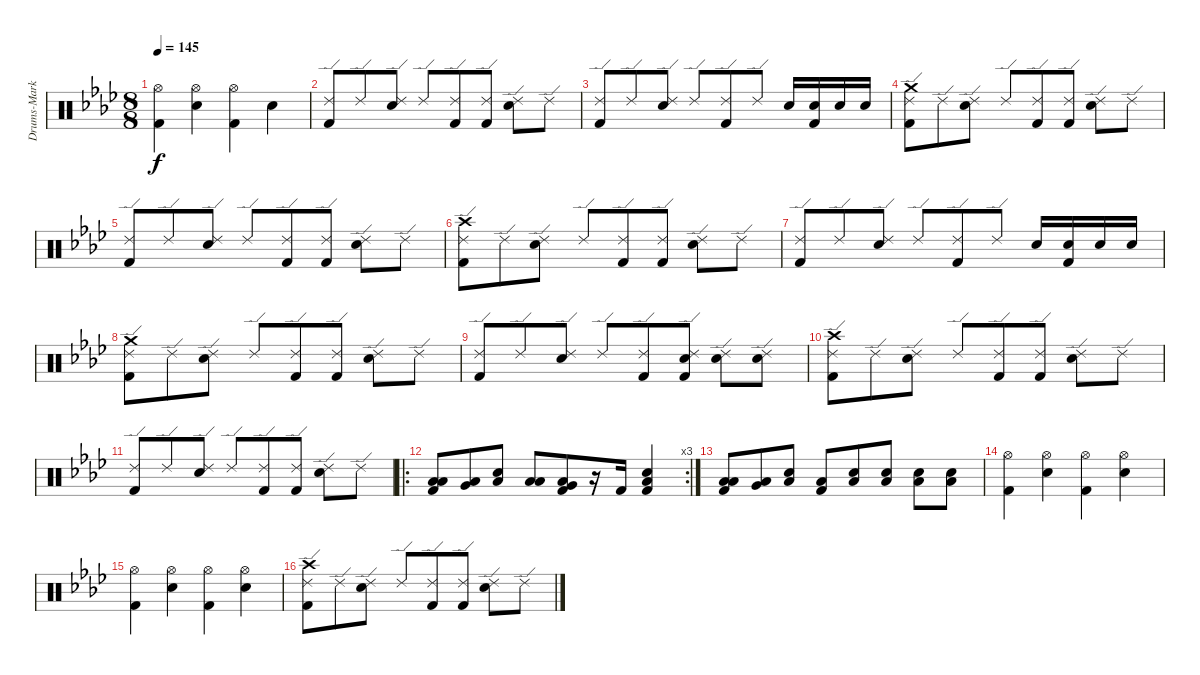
\track ("Drums-Marky" "Drums-Mark") {instrument percussion}
\staff {score}
\articulation defaults
\ts (8 8)
\tempo 145
\clef neutral
\ks ab
("Hi-Hat (open)" "Kick (hit) 2").4{dy f} ("Hi-Hat (open)" "Snare (hit) 2").4 ("Hi-Hat (open)" "Kick (hit) 2").4 "Snare (hit) 2".4 |
("Ride (edge) 2" "Kick (hit) 2").8 "Ride (edge) 2".8 ("Ride (edge) 2" "Snare (hit) 2").8 "Ride (edge) 2".8 ("Ride (edge) 2" "Kick (hit) 2").8 ("Ride (edge) 2" "Kick (hit) 2").8 ("Ride (edge) 2" "Snare (hit) 2").8 "Ride (edge) 2".8 |
("Ride (edge) 2" "Kick (hit) 2").8 "Ride (edge) 2".8 ("Ride (edge) 2" "Snare (hit) 2").8 "Ride (edge) 2".8 ("Ride (edge) 2" "Kick (hit) 2").8 "Ride (edge) 2".8 "Snare (hit) 2".16 ("Kick (hit) 2" "Snare (hit) 2").16 "Snare (hit) 2".16 "Snare (hit) 2".16 |
("Ride (edge) 2" "Kick (hit) 2" "Crash medium (hit)").8 "Ride (edge) 2".8 ("Ride (edge) 2" "Snare (hit) 2").8 "Ride (edge) 2".8 ("Ride (edge) 2" "Kick (hit) 2").8 ("Ride (edge) 2" "Kick (hit) 2").8 ("Ride (edge) 2" "Snare (hit) 2").8 "Ride (edge) 2".8 |
("Ride (edge) 2" "Kick (hit) 2").8 "Ride (edge) 2".8 ("Ride (edge) 2" "Snare (hit) 2").8 "Ride (edge) 2".8 ("Ride (edge) 2" "Kick (hit) 2").8 ("Ride (edge) 2" "Kick (hit) 2").8 ("Ride (edge) 2" "Snare (hit) 2").8 "Ride (edge) 2".8 |
("Ride (edge) 2" "Kick (hit) 2" "Crash high (hit)").8 "Ride (edge) 2".8 ("Ride (edge) 2" "Snare (hit) 2").8 "Ride (edge) 2".8 ("Ride (edge) 2" "Kick (hit) 2").8 ("Ride (edge) 2" "Kick (hit) 2").8 ("Ride (edge) 2" "Snare (hit) 2").8 "Ride (edge) 2".8 |
("Ride (edge) 2" "Kick (hit) 2").8 "Ride (edge) 2".8 ("Ride (edge) 2" "Snare (hit) 2").8 "Ride (edge) 2".8 ("Ride (edge) 2" "Kick (hit) 2").8 "Ride (edge) 2".8 "Snare (hit) 2".16 ("Snare (hit) 2" "Kick (hit) 2").16 "Snare (hit) 2".16 "Snare (hit) 2".16 |
("Ride (edge) 2" "Kick (hit) 2" "Crash medium (hit)").8 "Ride (edge) 2".8 ("Ride (edge) 2" "Snare (hit) 2").8 "Ride (edge) 2".8 ("Ride (edge) 2" "Kick (hit) 2").8 ("Ride (edge) 2" "Kick (hit) 2").8 ("Ride (edge) 2" "Snare (hit) 2").8 "Ride (edge) 2".8 |
("Ride (edge) 2" "Kick (hit) 2").8 "Ride (edge) 2".8 ("Ride (edge) 2" "Snare (hit) 2").8 "Ride (edge) 2".8 ("Ride (edge) 2" "Kick (hit) 2").8 ("Ride (edge) 2" "Snare (hit) 2" "Kick (hit) 2").8 ("Ride (edge) 2" "Snare (hit) 2").8 ("Ride (edge) 2" "Snare (hit) 2").8 |
("Ride (edge) 2" "Kick (hit) 2" "Crash high (hit)").8 "Ride (edge) 2".8 ("Ride (edge) 2" "Snare (hit) 2").8 "Ride (edge) 2".8 ("Ride (edge) 2" "Kick (hit) 2").8 ("Ride (edge) 2" "Kick (hit) 2").8 ("Ride (edge) 2" "Snare (hit) 2").8 "Ride (edge) 2".8 |
("Ride (edge) 2" "Kick (hit) 2").8 "Ride (edge) 2".8 ("Ride (edge) 2" "Snare (hit) 2").8 "Ride (edge) 2".8 ("Ride (edge) 2" "Kick (hit) 2").8 ("Ride (edge) 2" "Kick (hit) 2").8 ("Ride (edge) 2" "Snare (hit) 2").8 "Ride (edge) 2".8 |
\ro
\rc 3
("Low Floor Tom (hit)" "Kick (hit) 2" "Low Tom (hit)").8 ("Low Floor Tom (hit)" "Very Low Tom (hit)").8 ("Low Floor Tom (hit)" "Snare (hit) 2").8 ("Low Floor Tom (hit)" "Low Tom (hit)").8 ("Low Floor Tom (hit)" "Kick (hit) 2" "Very Low Tom (hit)").8 r.16 "Kick (hit) 2".16 ("Low Floor Tom (hit)" "Snare (hit) 2" "Kick (hit) 2").4 |
("Low Floor Tom (hit)" "Low Tom (hit)" "Kick (hit) 2").8 ("Low Floor Tom (hit)" "Very Low Tom (hit)").8 ("Low Floor Tom (hit)" "Snare (hit) 2").8 ("Low Floor Tom (hit)" "Kick (hit) 2").8 ("Low Floor Tom (hit)" "Snare (hit) 2").8 ("Low Floor Tom (hit)" "Snare (hit) 2").8 ("Low Floor Tom (hit)" "Snare (hit) 2").8 ("Low Floor Tom (hit)" "Snare (hit) 2").8 |
("Hi-Hat (open)" "Kick (hit) 2").4 ("Hi-Hat (open)" "Snare (hit) 2").4 ("Hi-Hat (open)" "Kick (hit) 2").4 ("Hi-Hat (open)" "Snare (hit) 2").4 |
("Hi-Hat (open)" "Kick (hit) 2").4 ("Hi-Hat (open)" "Snare (hit) 2").4 ("Hi-Hat (open)" "Kick (hit) 2").4 ("Hi-Hat (open)" "Snare (hit) 2").4 |
("Ride (edge) 2" "Kick (hit) 2" "Crash high (hit)").8 "Ride (edge) 2".8 ("Ride (edge) 2" "Snare (hit) 2").8 "Ride (edge) 2".8 ("Ride (edge) 2" "Kick (hit) 2").8 ("Ride (edge) 2" "Kick (hit) 2").8 ("Ride (edge) 2" "Snare (hit) 2").8 "Ride (edge) 2".8
